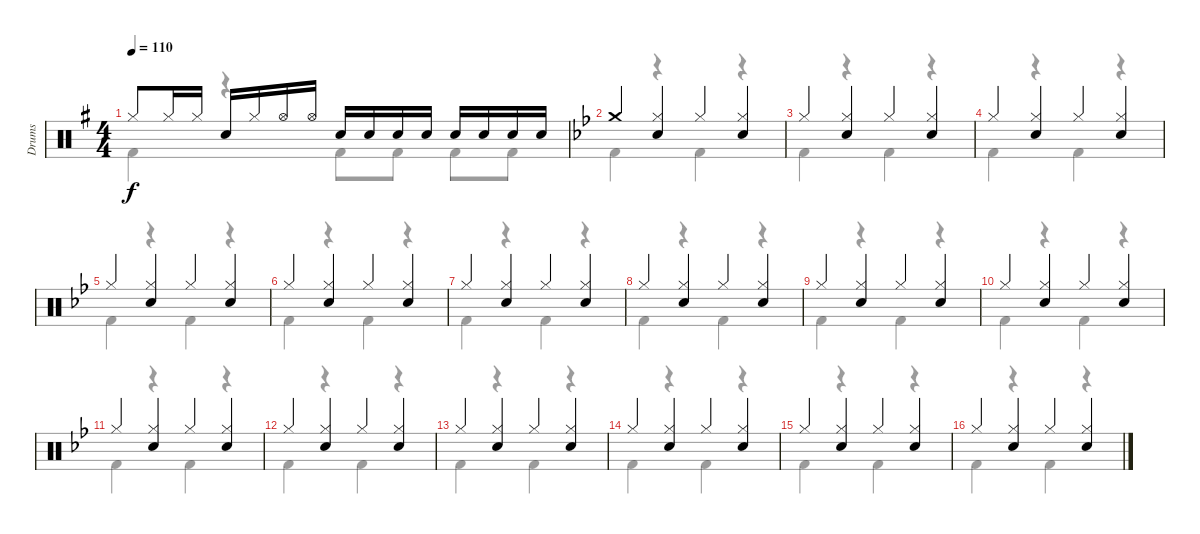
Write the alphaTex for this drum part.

\track ("Drums" "Drums") {instrument percussion}
\staff {score}
\articulation defaults
\voice
\ts (4 4)
\tempo 110
\clef neutral
\ks g "Hi-Hat (closed)".8{dy f} "Hi-Hat (closed)".16 "Hi-Hat (closed)".16 "Snare (hit) 2".16 "Hi-Hat (closed)".16 "Hi-Hat (open)".16 "Hi-Hat (open)".16 "Snare (hit) 2".16 "Snare (hit) 2".16 "Snare (hit) 2".16 "Snare (hit) 2".16 "Snare (hit) 2".16 "Snare (hit) 2".16 "Snare (hit) 2".16 "Snare (hit) 2".16
|
\ks bb "Crash medium (hit)".4
("Hi-Hat (closed)" "Snare (hit) 2").4 "Hi-Hat (closed)".4 ("Hi-Hat (closed)" "Snare (hit) 2").4 |
"Hi-Hat (closed)".4 ("Hi-Hat (closed)" "Snare (hit) 2").4 "Hi-Hat (closed)".4 ("Hi-Hat (closed)" "Snare (hit) 2").4 |
"Hi-Hat (closed)".4 ("Hi-Hat (closed)" "Snare (hit) 2").4 "Hi-Hat (closed)".4 ("Hi-Hat (closed)" "Snare (hit) 2").4 |
"Hi-Hat (closed)".4 ("Hi-Hat (closed)" "Snare (hit) 2").4 "Hi-Hat (closed)".4 ("Hi-Hat (closed)" "Snare (hit) 2").4 |
"Hi-Hat (closed)".4 ("Hi-Hat (closed)" "Snare (hit) 2").4 "Hi-Hat (closed)".4 ("Hi-Hat (closed)" "Snare (hit) 2").4 |
"Hi-Hat (closed)".4 ("Hi-Hat (closed)" "Snare (hit) 2").4 "Hi-Hat (closed)".4 ("Hi-Hat (closed)" "Snare (hit) 2").4 |
"Hi-Hat (closed)".4 ("Hi-Hat (closed)" "Snare (hit) 2").4 "Hi-Hat (closed)".4 ("Hi-Hat (closed)" "Snare (hit) 2").4 |
"Hi-Hat (closed)".4 ("Hi-Hat (closed)" "Snare (hit) 2").4 "Hi-Hat (closed)".4 ("Hi-Hat (closed)" "Snare (hit) 2").4 |
"Hi-Hat (closed)".4 ("Hi-Hat (closed)" "Snare (hit) 2").4 "Hi-Hat (closed)".4 ("Hi-Hat (closed)" "Snare (hit) 2").4 |
"Hi-Hat (closed)".4 ("Hi-Hat (closed)" "Snare (hit) 2").4 "Hi-Hat (closed)".4 ("Hi-Hat (closed)" "Snare (hit) 2").4 |
"Hi-Hat (closed)".4 ("Hi-Hat (closed)" "Snare (hit) 2").4 "Hi-Hat (closed)".4 ("Hi-Hat (closed)" "Snare (hit) 2").4 |
"Hi-Hat (closed)".4 ("Hi-Hat (closed)" "Snare (hit) 2").4 "Hi-Hat (closed)".4 ("Hi-Hat (closed)" "Snare (hit) 2").4 |
"Hi-Hat (closed)".4 ("Hi-Hat (closed)" "Snare (hit) 2").4 "Hi-Hat (closed)".4 ("Hi-Hat (closed)" "Snare (hit) 2").4 |
"Hi-Hat (closed)".4 ("Hi-Hat (closed)" "Snare (hit) 2").4 "Hi-Hat (closed)".4 ("Hi-Hat (closed)" "Snare (hit) 2").4 |
"Hi-Hat (closed)".4 ("Hi-Hat (closed)" "Snare (hit) 2").4 "Hi-Hat (closed)".4 ("Hi-Hat (closed)" "Snare (hit) 2").4
\voice
\clef neutral
\ottava regular
\simile none
\ks g "Kick (hit) 2".4{dy f}
r.4 "Kick (hit) 2".8 "Kick (hit) 2".8 "Kick (hit) 2".8 "Kick (hit) 2".8 |
\ks bb "Kick (hit) 2".4
r.4 "Kick (hit) 2".4 r.4 |
"Kick (hit) 2".4 r.4 "Kick (hit) 2".4 r.4 |
"Kick (hit) 2".4 r.4 "Kick (hit) 2".4 r.4 |
"Kick (hit) 2".4 r.4 "Kick (hit) 2".4 r.4 |
"Kick (hit) 2".4 r.4 "Kick (hit) 2".4 r.4 |
"Kick (hit) 2".4 r.4 "Kick (hit) 2".4 r.4 |
"Kick (hit) 2".4 r.4 "Kick (hit) 2".4 r.4 |
"Kick (hit) 2".4 r.4 "Kick (hit) 2".4 r.4 |
"Kick (hit) 2".4 r.4 "Kick (hit) 2".4 r.4 |
"Kick (hit) 2".4 r.4 "Kick (hit) 2".4 r.4 |
"Kick (hit) 2".4 r.4 "Kick (hit) 2".4 r.4 |
"Kick (hit) 2".4 r.4 "Kick (hit) 2".4 r.4 |
"Kick (hit) 2".4 r.4 "Kick (hit) 2".4 r.4 |
"Kick (hit) 2".4 r.4 "Kick (hit) 2".4 r.4 |
"Kick (hit) 2".4 r.4 "Kick (hit) 2".4 r.4
